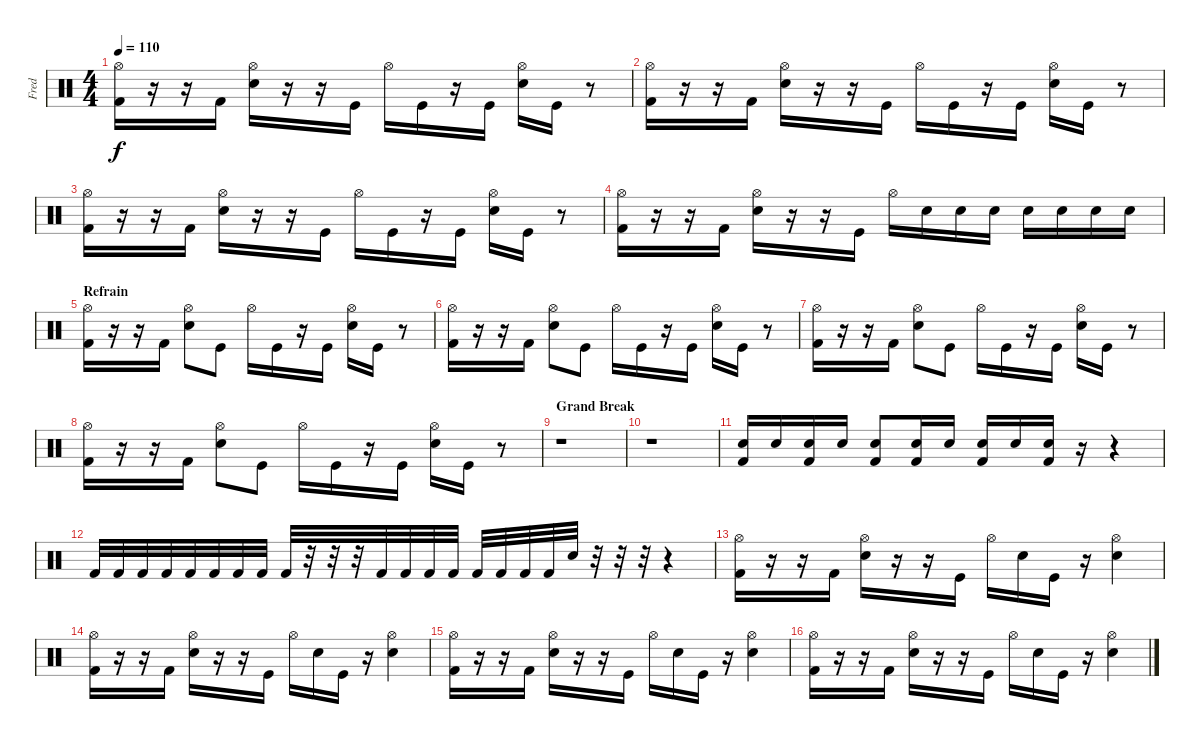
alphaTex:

\track ("Fred" "Fred") {instrument percussion}
\staff {score}
\articulation defaults
\ts (4 4)
\tempo 110
\clef neutral
\ks c
("Hi-Hat (open)" "Kick (hit) 2").16{dy f} r.16 r.16 "Kick (hit) 2".16 ("Hi-Hat (open)" "Electric Snare (hit)").16 r.16 r.16 "Kick (hit)".16 "Hi-Hat (open)".16 "Kick (hit)".16 r.16 "Kick (hit)".16 ("Hi-Hat (open)" "Electric Snare (hit)").16 "Kick (hit)".16 r.8 |
("Hi-Hat (open)" "Kick (hit) 2").16 r.16 r.16 "Kick (hit) 2".16 ("Hi-Hat (open)" "Electric Snare (hit)").16 r.16 r.16 "Kick (hit)".16 "Hi-Hat (open)".16 "Kick (hit)".16 r.16 "Kick (hit)".16 ("Hi-Hat (open)" "Electric Snare (hit)").16 "Kick (hit)".16 r.8 |
("Hi-Hat (open)" "Kick (hit) 2").16 r.16 r.16 "Kick (hit) 2".16 ("Hi-Hat (open)" "Electric Snare (hit)").16 r.16 r.16 "Kick (hit)".16 "Hi-Hat (open)".16 "Kick (hit)".16 r.16 "Kick (hit)".16 ("Hi-Hat (open)" "Electric Snare (hit)").16 "Kick (hit)".16 r.8 |
("Hi-Hat (open)" "Kick (hit) 2").16 r.16 r.16 "Kick (hit) 2".16 ("Hi-Hat (open)" "Electric Snare (hit)").16 r.16 r.16 "Kick (hit)".16 "Hi-Hat (open)".16 "Electric Snare (hit)".16 "Electric Snare (hit)".16 "Electric Snare (hit)".16 "Electric Snare (hit)".16 "Electric Snare (hit)".16 "Electric Snare (hit)".16 "Electric Snare (hit)".16 |
\section ("" "Refrain")
("Hi-Hat (open)" "Kick (hit) 2").16 r.16 r.16 "Kick (hit) 2".16 ("Hi-Hat (open)" "Electric Snare (hit)").8 "Kick (hit)".8 "Hi-Hat (open)".16 "Kick (hit)".16 r.16 "Kick (hit)".16 ("Hi-Hat (open)" "Electric Snare (hit)").16 "Kick (hit)".16 r.8 |
("Hi-Hat (open)" "Kick (hit) 2").16 r.16 r.16 "Kick (hit) 2".16 ("Hi-Hat (open)" "Electric Snare (hit)").8 "Kick (hit)".8 "Hi-Hat (open)".16 "Kick (hit)".16 r.16 "Kick (hit)".16 ("Hi-Hat (open)" "Electric Snare (hit)").16 "Kick (hit)".16 r.8 |
("Hi-Hat (open)" "Kick (hit) 2").16 r.16 r.16 "Kick (hit) 2".16 ("Hi-Hat (open)" "Electric Snare (hit)").8 "Kick (hit)".8 "Hi-Hat (open)".16 "Kick (hit)".16 r.16 "Kick (hit)".16 ("Hi-Hat (open)" "Electric Snare (hit)").16 "Kick (hit)".16 r.8 |
("Hi-Hat (open)" "Kick (hit) 2").16 r.16 r.16 "Kick (hit) 2".16 ("Hi-Hat (open)" "Electric Snare (hit)").8 "Kick (hit)".8 "Hi-Hat (open)".16 "Kick (hit)".16 r.16 "Kick (hit)".16 ("Hi-Hat (open)" "Electric Snare (hit)").16 "Kick (hit)".16 r.8 |
\section ("" "Grand Break")
r.1 |
r.1 |
("Electric Snare (hit)" "Kick (hit) 2").16 "Electric Snare (hit)".16 ("Electric Snare (hit)" "Kick (hit) 2").16 "Electric Snare (hit)".16 ("Electric Snare (hit)" "Kick (hit) 2").8 ("Electric Snare (hit)" "Kick (hit) 2").16 "Electric Snare (hit)".16 ("Electric Snare (hit)" "Kick (hit) 2").16 "Electric Snare (hit)".16 ("Electric Snare (hit)" "Kick (hit) 2").16 r.16 r.4 |
"Kick (hit) 2".32 "Kick (hit) 2".32 "Kick (hit) 2".32 "Kick (hit) 2".32 "Kick (hit) 2".32 "Kick (hit) 2".32 "Kick (hit) 2".32 "Kick (hit) 2".32 "Kick (hit) 2".32 r.32 r.32 r.32 "Kick (hit) 2".32 "Kick (hit) 2".32 "Kick (hit) 2".32 "Kick (hit) 2".32 "Kick (hit) 2".32 "Kick (hit) 2".32 "Kick (hit) 2".32 "Kick (hit) 2".32 "Electric Snare (hit)".32 r.32 r.32 r.32 r.4 |
("Hi-Hat (open)" "Kick (hit) 2").16 r.16 r.16 "Kick (hit) 2".16 ("Hi-Hat (open)" "Electric Snare (hit)").16 r.16 r.16 "Kick (hit)".16 "Hi-Hat (open)".16 "Electric Snare (hit)".16 "Kick (hit)".16 r.16 ("Hi-Hat (open)" "Electric Snare (hit)").4 |
("Hi-Hat (open)" "Kick (hit) 2").16 r.16 r.16 "Kick (hit) 2".16 ("Hi-Hat (open)" "Electric Snare (hit)").16 r.16 r.16 "Kick (hit)".16 "Hi-Hat (open)".16 "Electric Snare (hit)".16 "Kick (hit)".16 r.16 ("Hi-Hat (open)" "Electric Snare (hit)").4 |
("Hi-Hat (open)" "Kick (hit) 2").16 r.16 r.16 "Kick (hit) 2".16 ("Hi-Hat (open)" "Electric Snare (hit)").16 r.16 r.16 "Kick (hit)".16 "Hi-Hat (open)".16 "Electric Snare (hit)".16 "Kick (hit)".16 r.16 ("Hi-Hat (open)" "Electric Snare (hit)").4 |
("Hi-Hat (open)" "Kick (hit) 2").16 r.16 r.16 "Kick (hit) 2".16 ("Hi-Hat (open)" "Electric Snare (hit)").16 r.16 r.16 "Kick (hit)".16 "Hi-Hat (open)".16 "Electric Snare (hit)".16 "Kick (hit)".16 r.16 ("Hi-Hat (open)" "Electric Snare (hit)").4
